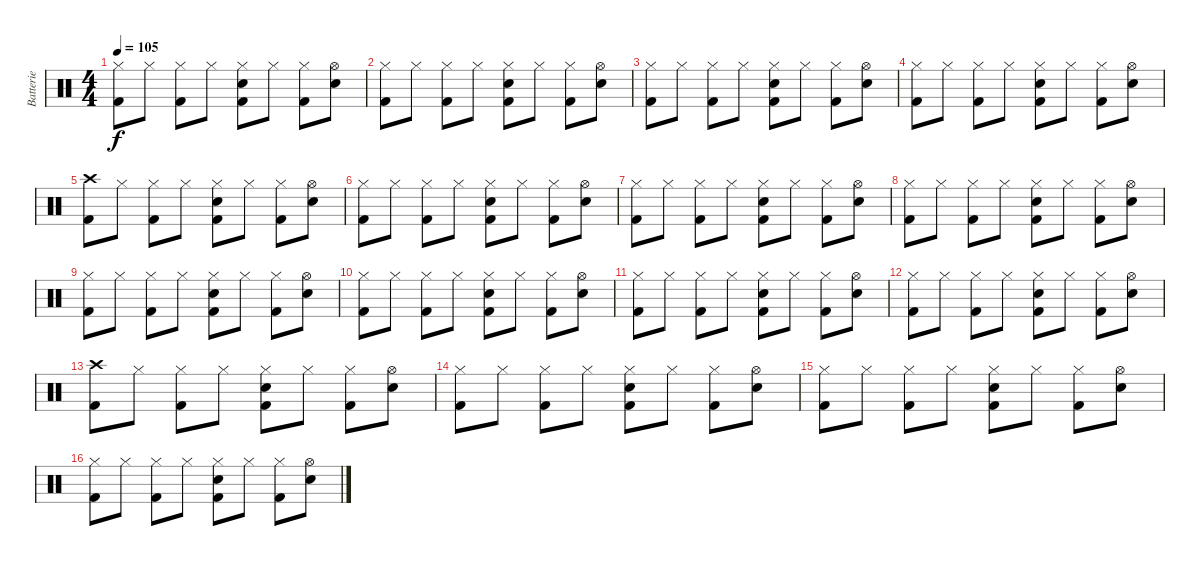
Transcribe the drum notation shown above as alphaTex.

\track ("Batterie" "Batterie") {instrument percussion}
\staff {score}
\articulation defaults
\ts (4 4)
\tempo 105
\clef neutral
\ks c
("Hi-Hat (closed)" "Kick (hit) 2").8{dy f} "Hi-Hat (closed)".8 ("Hi-Hat (closed)" "Kick (hit) 2").8 "Hi-Hat (closed)".8 ("Hi-Hat (closed)" "Snare (hit) 2" "Kick (hit) 2").8 "Hi-Hat (closed)".8 ("Hi-Hat (closed)" "Kick (hit) 2").8 ("Hi-Hat (open)" "Snare (hit) 2").8 |
("Hi-Hat (closed)" "Kick (hit) 2").8 "Hi-Hat (closed)".8 ("Hi-Hat (closed)" "Kick (hit) 2").8 "Hi-Hat (closed)".8 ("Hi-Hat (closed)" "Snare (hit) 2" "Kick (hit) 2").8 "Hi-Hat (closed)".8 ("Hi-Hat (closed)" "Kick (hit) 2").8 ("Hi-Hat (open)" "Snare (hit) 2").8 |
("Hi-Hat (closed)" "Kick (hit) 2").8 "Hi-Hat (closed)".8 ("Hi-Hat (closed)" "Kick (hit) 2").8 "Hi-Hat (closed)".8 ("Hi-Hat (closed)" "Snare (hit) 2" "Kick (hit) 2").8 "Hi-Hat (closed)".8 ("Hi-Hat (closed)" "Kick (hit) 2").8 ("Hi-Hat (open)" "Snare (hit) 2").8 |
("Hi-Hat (closed)" "Kick (hit) 2").8 "Hi-Hat (closed)".8 ("Hi-Hat (closed)" "Kick (hit) 2").8 "Hi-Hat (closed)".8 ("Hi-Hat (closed)" "Snare (hit) 2" "Kick (hit) 2").8 "Hi-Hat (closed)".8 ("Hi-Hat (closed)" "Kick (hit) 2").8 ("Hi-Hat (open)" "Snare (hit) 2").8 |
("Crash high (hit)" "Kick (hit) 2").8 "Hi-Hat (closed)".8 ("Hi-Hat (closed)" "Kick (hit) 2").8 "Hi-Hat (closed)".8 ("Hi-Hat (closed)" "Snare (hit) 2" "Kick (hit) 2").8 "Hi-Hat (closed)".8 ("Hi-Hat (closed)" "Kick (hit) 2").8 ("Hi-Hat (open)" "Snare (hit) 2").8 |
("Hi-Hat (closed)" "Kick (hit) 2").8 "Hi-Hat (closed)".8 ("Hi-Hat (closed)" "Kick (hit) 2").8 "Hi-Hat (closed)".8 ("Hi-Hat (closed)" "Snare (hit) 2" "Kick (hit) 2").8 "Hi-Hat (closed)".8 ("Hi-Hat (closed)" "Kick (hit) 2").8 ("Hi-Hat (open)" "Snare (hit) 2").8 |
("Hi-Hat (closed)" "Kick (hit) 2").8 "Hi-Hat (closed)".8 ("Hi-Hat (closed)" "Kick (hit) 2").8 "Hi-Hat (closed)".8 ("Hi-Hat (closed)" "Snare (hit) 2" "Kick (hit) 2").8 "Hi-Hat (closed)".8 ("Hi-Hat (closed)" "Kick (hit) 2").8 ("Hi-Hat (open)" "Snare (hit) 2").8 |
("Hi-Hat (closed)" "Kick (hit) 2").8 "Hi-Hat (closed)".8 ("Hi-Hat (closed)" "Kick (hit) 2").8 "Hi-Hat (closed)".8 ("Hi-Hat (closed)" "Snare (hit) 2" "Kick (hit) 2").8 "Hi-Hat (closed)".8 ("Hi-Hat (closed)" "Kick (hit) 2").8 ("Hi-Hat (open)" "Snare (hit) 2").8 |
("Hi-Hat (closed)" "Kick (hit) 2").8 "Hi-Hat (closed)".8 ("Hi-Hat (closed)" "Kick (hit) 2").8 "Hi-Hat (closed)".8 ("Hi-Hat (closed)" "Snare (hit) 2" "Kick (hit) 2").8 "Hi-Hat (closed)".8 ("Hi-Hat (closed)" "Kick (hit) 2").8 ("Hi-Hat (open)" "Snare (hit) 2").8 |
("Hi-Hat (closed)" "Kick (hit) 2").8 "Hi-Hat (closed)".8 ("Hi-Hat (closed)" "Kick (hit) 2").8 "Hi-Hat (closed)".8 ("Hi-Hat (closed)" "Snare (hit) 2" "Kick (hit) 2").8 "Hi-Hat (closed)".8 ("Hi-Hat (closed)" "Kick (hit) 2").8 ("Hi-Hat (open)" "Snare (hit) 2").8 |
("Hi-Hat (closed)" "Kick (hit) 2").8 "Hi-Hat (closed)".8 ("Hi-Hat (closed)" "Kick (hit) 2").8 "Hi-Hat (closed)".8 ("Hi-Hat (closed)" "Snare (hit) 2" "Kick (hit) 2").8 "Hi-Hat (closed)".8 ("Hi-Hat (closed)" "Kick (hit) 2").8 ("Hi-Hat (open)" "Snare (hit) 2").8 |
("Hi-Hat (closed)" "Kick (hit) 2").8 "Hi-Hat (closed)".8 ("Hi-Hat (closed)" "Kick (hit) 2").8 "Hi-Hat (closed)".8 ("Hi-Hat (closed)" "Snare (hit) 2" "Kick (hit) 2").8 "Hi-Hat (closed)".8 ("Hi-Hat (closed)" "Kick (hit) 2").8 ("Hi-Hat (open)" "Snare (hit) 2").8 |
("Crash high (hit)" "Kick (hit) 2").8 "Hi-Hat (closed)".8 ("Hi-Hat (closed)" "Kick (hit) 2").8 "Hi-Hat (closed)".8 ("Hi-Hat (closed)" "Snare (hit) 2" "Kick (hit) 2").8 "Hi-Hat (closed)".8 ("Hi-Hat (closed)" "Kick (hit) 2").8 ("Hi-Hat (open)" "Snare (hit) 2").8 |
("Hi-Hat (closed)" "Kick (hit) 2").8 "Hi-Hat (closed)".8 ("Hi-Hat (closed)" "Kick (hit) 2").8 "Hi-Hat (closed)".8 ("Hi-Hat (closed)" "Snare (hit) 2" "Kick (hit) 2").8 "Hi-Hat (closed)".8 ("Hi-Hat (closed)" "Kick (hit) 2").8 ("Hi-Hat (open)" "Snare (hit) 2").8 |
("Hi-Hat (closed)" "Kick (hit) 2").8 "Hi-Hat (closed)".8 ("Hi-Hat (closed)" "Kick (hit) 2").8 "Hi-Hat (closed)".8 ("Hi-Hat (closed)" "Snare (hit) 2" "Kick (hit) 2").8 "Hi-Hat (closed)".8 ("Hi-Hat (closed)" "Kick (hit) 2").8 ("Hi-Hat (open)" "Snare (hit) 2").8 |
("Hi-Hat (closed)" "Kick (hit) 2").8 "Hi-Hat (closed)".8 ("Hi-Hat (closed)" "Kick (hit) 2").8 "Hi-Hat (closed)".8 ("Hi-Hat (closed)" "Snare (hit) 2" "Kick (hit) 2").8 "Hi-Hat (closed)".8 ("Hi-Hat (closed)" "Kick (hit) 2").8 ("Hi-Hat (open)" "Snare (hit) 2").8
